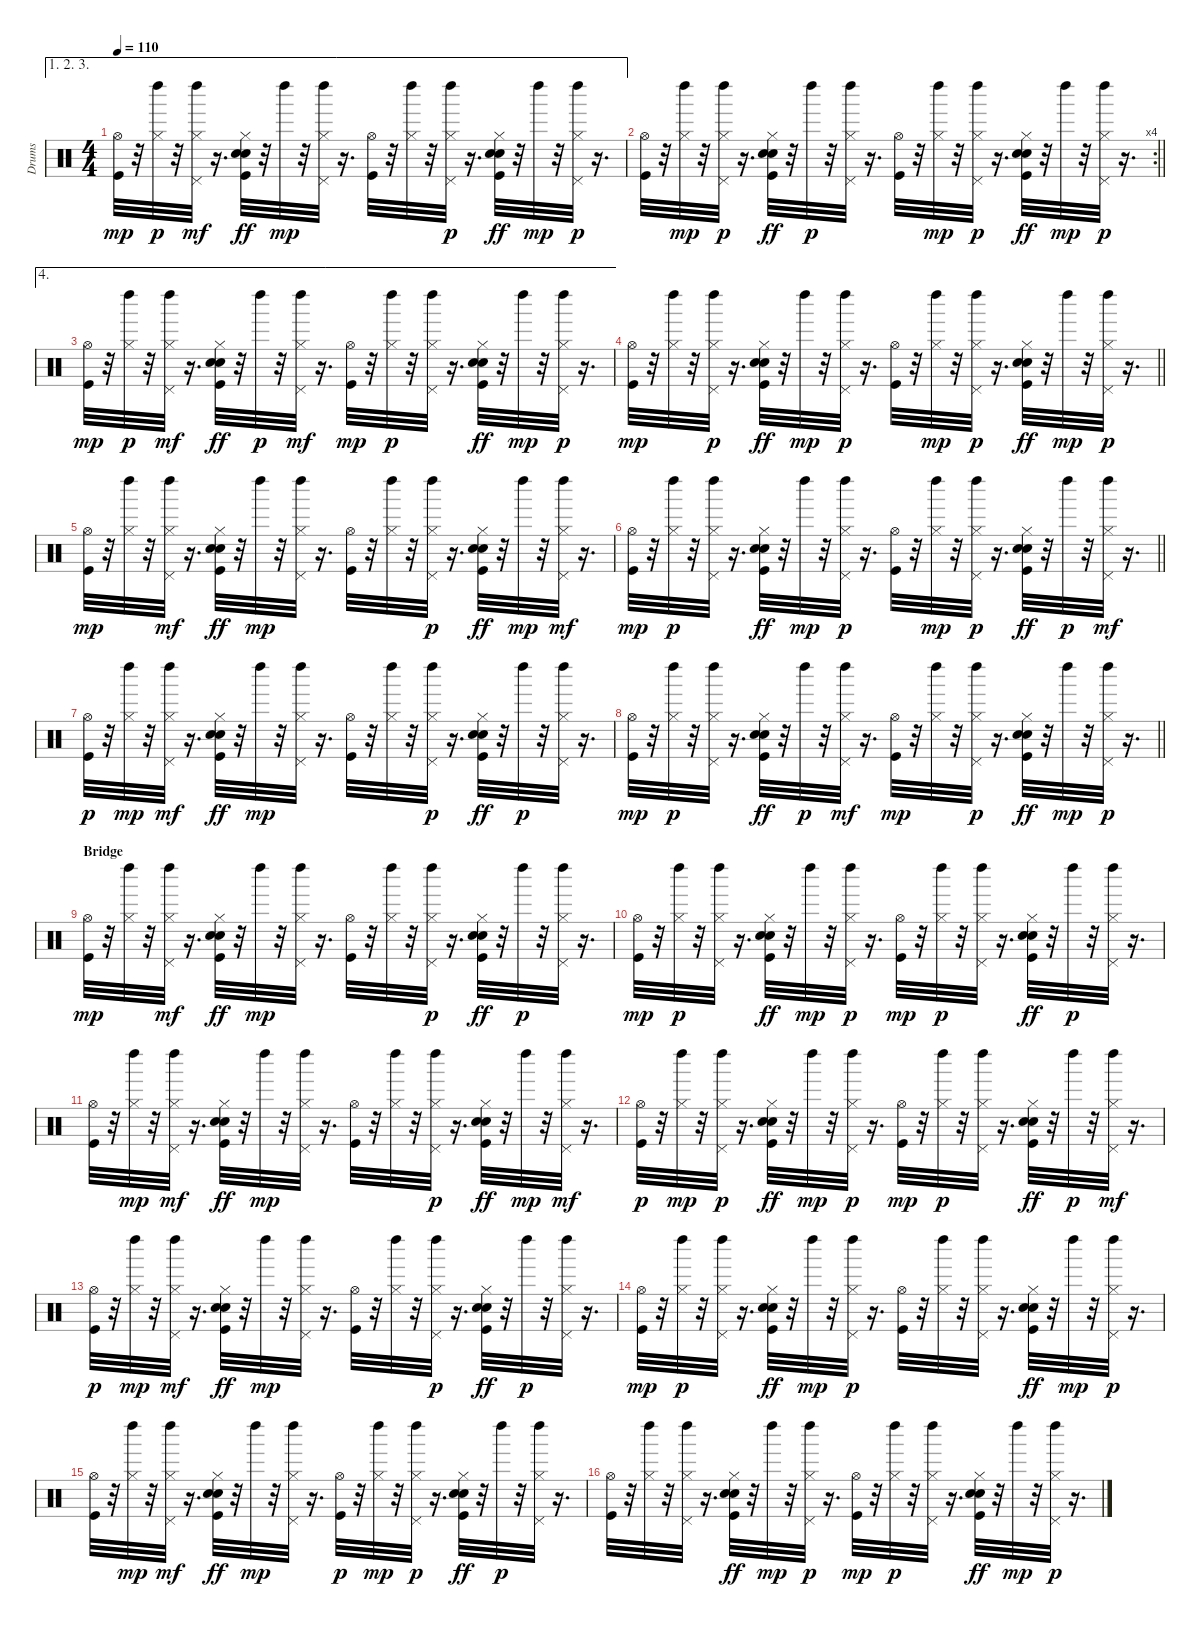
\track ("Drums" "Drums") {instrument percussion}
\staff {score}
\articulation defaults
\ae (1 2 3)
\ts (4 4)
\tempo 110
\clef neutral
\ks c
("Kick (hit)" "Hi-Hat (open)").32{dy mp} r.32 ("Hi-Hat (closed)" "Left Maraca (hit)").32{dy p} r.32 ("Hi-Hat (closed)" "Pedal Hi-Hat (hit)" "Left Maraca (hit)").32{dy mf} r.16{d} ("Kick (hit)" "Snare (hit) 2" "Hand Clap (hit)" "Hi-Hat (closed)").32{dy ff} r.32 "Left Maraca (hit)".32{dy mp} r.32 ("Hi-Hat (closed)" "Pedal Hi-Hat (hit)" "Left Maraca (hit)").32 r.16{d} ("Kick (hit)" "Hi-Hat (open)").32 r.32 ("Hi-Hat (closed)" "Left Maraca (hit)").32 r.32 ("Hi-Hat (closed)" "Pedal Hi-Hat (hit)" "Left Maraca (hit)").32{dy p} r.16{d} ("Kick (hit)" "Snare (hit) 2" "Hand Clap (hit)" "Hi-Hat (closed)").32{dy ff} r.32 "Left Maraca (hit)".32{dy mp} r.32 ("Hi-Hat (closed)" "Pedal Hi-Hat (hit)" "Left Maraca (hit)").32{dy p} r.16{d} |
\rc 4
\barLineRight lightlight
("Kick (hit)" "Hi-Hat (open)").32 r.32 ("Hi-Hat (closed)" "Left Maraca (hit)").32{dy mp} r.32 ("Hi-Hat (closed)" "Pedal Hi-Hat (hit)" "Left Maraca (hit)").32{dy p} r.16{d} ("Kick (hit)" "Snare (hit) 2" "Hand Clap (hit)" "Hi-Hat (closed)").32{dy ff} r.32 "Left Maraca (hit)".32{dy p} r.32 ("Hi-Hat (closed)" "Pedal Hi-Hat (hit)" "Left Maraca (hit)").32 r.16{d} ("Kick (hit)" "Hi-Hat (open)").32 r.32 ("Hi-Hat (closed)" "Left Maraca (hit)").32{dy mp} r.32 ("Hi-Hat (closed)" "Pedal Hi-Hat (hit)" "Left Maraca (hit)").32{dy p} r.16{d} ("Kick (hit)" "Snare (hit) 2" "Hand Clap (hit)" "Hi-Hat (closed)").32{dy ff} r.32 "Left Maraca (hit)".32{dy mp} r.32 ("Hi-Hat (closed)" "Pedal Hi-Hat (hit)" "Left Maraca (hit)").32{dy p} r.16{d} |
\ae 4
("Kick (hit)" "Hi-Hat (open)").32{dy mp} r.32 ("Hi-Hat (closed)" "Left Maraca (hit)").32{dy p} r.32 ("Hi-Hat (closed)" "Pedal Hi-Hat (hit)" "Left Maraca (hit)").32{dy mf} r.16{d} ("Kick (hit)" "Snare (hit) 2" "Hand Clap (hit)" "Hi-Hat (closed)").32{dy ff} r.32 "Left Maraca (hit)".32{dy p} r.32 ("Hi-Hat (closed)" "Pedal Hi-Hat (hit)" "Left Maraca (hit)").32{dy mf} r.16{d} ("Kick (hit)" "Hi-Hat (open)").32{dy mp} r.32 ("Hi-Hat (closed)" "Left Maraca (hit)").32{dy p} r.32 ("Hi-Hat (closed)" "Pedal Hi-Hat (hit)" "Left Maraca (hit)").32 r.16{d} ("Kick (hit)" "Snare (hit) 2" "Hand Clap (hit)" "Hi-Hat (closed)").32{dy ff} r.32 "Left Maraca (hit)".32{dy mp} r.32 ("Hi-Hat (closed)" "Pedal Hi-Hat (hit)" "Left Maraca (hit)").32{dy p} r.16{d} |
\barLineRight lightlight
("Kick (hit)" "Hi-Hat (open)").32{dy mp} r.32 ("Hi-Hat (closed)" "Left Maraca (hit)").32 r.32 ("Hi-Hat (closed)" "Pedal Hi-Hat (hit)" "Left Maraca (hit)").32{dy p} r.16{d} ("Kick (hit)" "Snare (hit) 2" "Hand Clap (hit)" "Hi-Hat (closed)").32{dy ff} r.32 "Left Maraca (hit)".32{dy mp} r.32 ("Hi-Hat (closed)" "Pedal Hi-Hat (hit)" "Left Maraca (hit)").32{dy p} r.16{d} ("Kick (hit)" "Hi-Hat (open)").32 r.32 ("Hi-Hat (closed)" "Left Maraca (hit)").32{dy mp} r.32 ("Hi-Hat (closed)" "Pedal Hi-Hat (hit)" "Left Maraca (hit)").32{dy p} r.16{d} ("Kick (hit)" "Snare (hit) 2" "Hand Clap (hit)" "Hi-Hat (closed)").32{dy ff} r.32 "Left Maraca (hit)".32{dy mp} r.32 ("Hi-Hat (closed)" "Pedal Hi-Hat (hit)" "Left Maraca (hit)").32{dy p} r.16{d} |
("Kick (hit)" "Hi-Hat (open)").32{dy mp} r.32 ("Hi-Hat (closed)" "Left Maraca (hit)").32 r.32 ("Hi-Hat (closed)" "Pedal Hi-Hat (hit)" "Left Maraca (hit)").32{dy mf} r.16{d} ("Kick (hit)" "Snare (hit) 2" "Hand Clap (hit)" "Hi-Hat (closed)").32{dy ff} r.32 "Left Maraca (hit)".32{dy mp} r.32 ("Hi-Hat (closed)" "Pedal Hi-Hat (hit)" "Left Maraca (hit)").32 r.16{d} ("Kick (hit)" "Hi-Hat (open)").32 r.32 ("Hi-Hat (closed)" "Left Maraca (hit)").32 r.32 ("Hi-Hat (closed)" "Pedal Hi-Hat (hit)" "Left Maraca (hit)").32{dy p} r.16{d} ("Kick (hit)" "Snare (hit) 2" "Hand Clap (hit)" "Hi-Hat (closed)").32{dy ff} r.32 "Left Maraca (hit)".32{dy mp} r.32 ("Hi-Hat (closed)" "Pedal Hi-Hat (hit)" "Left Maraca (hit)").32{dy mf} r.16{d} |
\barLineRight lightlight
("Kick (hit)" "Hi-Hat (open)").32{dy mp} r.32 ("Hi-Hat (closed)" "Left Maraca (hit)").32{dy p} r.32 ("Hi-Hat (closed)" "Pedal Hi-Hat (hit)" "Left Maraca (hit)").32 r.16{d} ("Kick (hit)" "Snare (hit) 2" "Hand Clap (hit)" "Hi-Hat (closed)").32{dy ff} r.32 "Left Maraca (hit)".32{dy mp} r.32 ("Hi-Hat (closed)" "Pedal Hi-Hat (hit)" "Left Maraca (hit)").32{dy p} r.16{d} ("Kick (hit)" "Hi-Hat (open)").32 r.32 ("Hi-Hat (closed)" "Left Maraca (hit)").32{dy mp} r.32 ("Hi-Hat (closed)" "Pedal Hi-Hat (hit)" "Left Maraca (hit)").32{dy p} r.16{d} ("Kick (hit)" "Snare (hit) 2" "Hand Clap (hit)" "Hi-Hat (closed)").32{dy ff} r.32 "Left Maraca (hit)".32{dy p} r.32 ("Hi-Hat (closed)" "Pedal Hi-Hat (hit)" "Left Maraca (hit)").32{dy mf} r.16{d} |
("Kick (hit)" "Hi-Hat (open)").32{dy p} r.32 ("Hi-Hat (closed)" "Left Maraca (hit)").32{dy mp} r.32 ("Hi-Hat (closed)" "Pedal Hi-Hat (hit)" "Left Maraca (hit)").32{dy mf} r.16{d} ("Kick (hit)" "Snare (hit) 2" "Hand Clap (hit)" "Hi-Hat (closed)").32{dy ff} r.32 "Left Maraca (hit)".32{dy mp} r.32 ("Hi-Hat (closed)" "Pedal Hi-Hat (hit)" "Left Maraca (hit)").32 r.16{d} ("Kick (hit)" "Hi-Hat (open)").32 r.32 ("Hi-Hat (closed)" "Left Maraca (hit)").32 r.32 ("Hi-Hat (closed)" "Pedal Hi-Hat (hit)" "Left Maraca (hit)").32{dy p} r.16{d} ("Kick (hit)" "Snare (hit) 2" "Hand Clap (hit)" "Hi-Hat (closed)").32{dy ff} r.32 "Left Maraca (hit)".32{dy p} r.32 ("Hi-Hat (closed)" "Pedal Hi-Hat (hit)" "Left Maraca (hit)").32 r.16{d} |
\barLineRight lightlight
("Kick (hit)" "Hi-Hat (open)").32{dy mp} r.32 ("Hi-Hat (closed)" "Left Maraca (hit)").32{dy p} r.32 ("Hi-Hat (closed)" "Pedal Hi-Hat (hit)" "Left Maraca (hit)").32 r.16{d} ("Kick (hit)" "Snare (hit) 2" "Hand Clap (hit)" "Hi-Hat (closed)").32{dy ff} r.32 "Left Maraca (hit)".32{dy p} r.32 ("Hi-Hat (closed)" "Pedal Hi-Hat (hit)" "Left Maraca (hit)").32{dy mf} r.16{d} ("Kick (hit)" "Hi-Hat (open)").32{dy mp} r.32 ("Hi-Hat (closed)" "Left Maraca (hit)").32 r.32 ("Hi-Hat (closed)" "Pedal Hi-Hat (hit)" "Left Maraca (hit)").32{dy p} r.16{d} ("Kick (hit)" "Snare (hit) 2" "Hand Clap (hit)" "Hi-Hat (closed)").32{dy ff} r.32 "Left Maraca (hit)".32{dy mp} r.32 ("Hi-Hat (closed)" "Pedal Hi-Hat (hit)" "Left Maraca (hit)").32{dy p} r.16{d} |
\section ("" "Bridge")
("Kick (hit)" "Hi-Hat (open)").32{dy mp} r.32 ("Hi-Hat (closed)" "Left Maraca (hit)").32 r.32 ("Hi-Hat (closed)" "Pedal Hi-Hat (hit)" "Left Maraca (hit)").32{dy mf} r.16{d} ("Kick (hit)" "Snare (hit) 2" "Hand Clap (hit)" "Hi-Hat (closed)").32{dy ff} r.32 "Left Maraca (hit)".32{dy mp} r.32 ("Hi-Hat (closed)" "Pedal Hi-Hat (hit)" "Left Maraca (hit)").32 r.16{d} ("Kick (hit)" "Hi-Hat (open)").32 r.32 ("Hi-Hat (closed)" "Left Maraca (hit)").32 r.32 ("Hi-Hat (closed)" "Pedal Hi-Hat (hit)" "Left Maraca (hit)").32{dy p} r.16{d} ("Kick (hit)" "Snare (hit) 2" "Hand Clap (hit)" "Hi-Hat (closed)").32{dy ff} r.32 "Left Maraca (hit)".32{dy p} r.32 ("Hi-Hat (closed)" "Pedal Hi-Hat (hit)" "Left Maraca (hit)").32 r.16{d} |
("Kick (hit)" "Hi-Hat (open)").32{dy mp} r.32 ("Hi-Hat (closed)" "Left Maraca (hit)").32{dy p} r.32 ("Hi-Hat (closed)" "Pedal Hi-Hat (hit)" "Left Maraca (hit)").32 r.16{d} ("Kick (hit)" "Snare (hit) 2" "Hand Clap (hit)" "Hi-Hat (closed)").32{dy ff} r.32 "Left Maraca (hit)".32{dy mp} r.32 ("Hi-Hat (closed)" "Pedal Hi-Hat (hit)" "Left Maraca (hit)").32{dy p} r.16{d} ("Kick (hit)" "Hi-Hat (open)").32{dy mp} r.32 ("Hi-Hat (closed)" "Left Maraca (hit)").32{dy p} r.32 ("Hi-Hat (closed)" "Pedal Hi-Hat (hit)" "Left Maraca (hit)").32 r.16{d} ("Kick (hit)" "Snare (hit) 2" "Hand Clap (hit)" "Hi-Hat (closed)").32{dy ff} r.32 "Left Maraca (hit)".32{dy p} r.32 ("Hi-Hat (closed)" "Pedal Hi-Hat (hit)" "Left Maraca (hit)").32 r.16{d} |
("Kick (hit)" "Hi-Hat (open)").32 r.32 ("Hi-Hat (closed)" "Left Maraca (hit)").32{dy mp} r.32 ("Hi-Hat (closed)" "Pedal Hi-Hat (hit)" "Left Maraca (hit)").32{dy mf} r.16{d} ("Kick (hit)" "Snare (hit) 2" "Hand Clap (hit)" "Hi-Hat (closed)").32{dy ff} r.32 "Left Maraca (hit)".32{dy mp} r.32 ("Hi-Hat (closed)" "Pedal Hi-Hat (hit)" "Left Maraca (hit)").32 r.16{d} ("Kick (hit)" "Hi-Hat (open)").32 r.32 ("Hi-Hat (closed)" "Left Maraca (hit)").32 r.32 ("Hi-Hat (closed)" "Pedal Hi-Hat (hit)" "Left Maraca (hit)").32{dy p} r.16{d} ("Kick (hit)" "Snare (hit) 2" "Hand Clap (hit)" "Hi-Hat (closed)").32{dy ff} r.32 "Left Maraca (hit)".32{dy mp} r.32 ("Hi-Hat (closed)" "Pedal Hi-Hat (hit)" "Left Maraca (hit)").32{dy mf} r.16{d} |
("Kick (hit)" "Hi-Hat (open)").32{dy p} r.32 ("Hi-Hat (closed)" "Left Maraca (hit)").32{dy mp} r.32 ("Hi-Hat (closed)" "Pedal Hi-Hat (hit)" "Left Maraca (hit)").32{dy p} r.16{d} ("Kick (hit)" "Snare (hit) 2" "Hand Clap (hit)" "Hi-Hat (closed)").32{dy ff} r.32 "Left Maraca (hit)".32{dy mp} r.32 ("Hi-Hat (closed)" "Pedal Hi-Hat (hit)" "Left Maraca (hit)").32{dy p} r.16{d} ("Kick (hit)" "Hi-Hat (open)").32{dy mp} r.32 ("Hi-Hat (closed)" "Left Maraca (hit)").32{dy p} r.32 ("Hi-Hat (closed)" "Pedal Hi-Hat (hit)" "Left Maraca (hit)").32 r.16{d} ("Kick (hit)" "Snare (hit) 2" "Hand Clap (hit)" "Hi-Hat (closed)").32{dy ff} r.32 "Left Maraca (hit)".32{dy p} r.32 ("Hi-Hat (closed)" "Pedal Hi-Hat (hit)" "Left Maraca (hit)").32{dy mf} r.16{d} |
("Kick (hit)" "Hi-Hat (open)").32{dy p} r.32 ("Hi-Hat (closed)" "Left Maraca (hit)").32{dy mp} r.32 ("Hi-Hat (closed)" "Pedal Hi-Hat (hit)" "Left Maraca (hit)").32{dy mf} r.16{d} ("Kick (hit)" "Snare (hit) 2" "Hand Clap (hit)" "Hi-Hat (closed)").32{dy ff} r.32 "Left Maraca (hit)".32{dy mp} r.32 ("Hi-Hat (closed)" "Pedal Hi-Hat (hit)" "Left Maraca (hit)").32 r.16{d} ("Kick (hit)" "Hi-Hat (open)").32 r.32 ("Hi-Hat (closed)" "Left Maraca (hit)").32 r.32 ("Hi-Hat (closed)" "Pedal Hi-Hat (hit)" "Left Maraca (hit)").32{dy p} r.16{d} ("Kick (hit)" "Snare (hit) 2" "Hand Clap (hit)" "Hi-Hat (closed)").32{dy ff} r.32 "Left Maraca (hit)".32{dy p} r.32 ("Hi-Hat (closed)" "Pedal Hi-Hat (hit)" "Left Maraca (hit)").32 r.16{d} |
("Kick (hit)" "Hi-Hat (open)").32{dy mp} r.32 ("Hi-Hat (closed)" "Left Maraca (hit)").32{dy p} r.32 ("Hi-Hat (closed)" "Pedal Hi-Hat (hit)" "Left Maraca (hit)").32 r.16{d} ("Kick (hit)" "Snare (hit) 2" "Hand Clap (hit)" "Hi-Hat (closed)").32{dy ff} r.32 "Left Maraca (hit)".32{dy mp} r.32 ("Hi-Hat (closed)" "Pedal Hi-Hat (hit)" "Left Maraca (hit)").32{dy p} r.16{d} ("Kick (hit)" "Hi-Hat (open)").32 r.32 ("Hi-Hat (closed)" "Left Maraca (hit)").32 r.32 ("Hi-Hat (closed)" "Pedal Hi-Hat (hit)" "Left Maraca (hit)").32 r.16{d} ("Kick (hit)" "Snare (hit) 2" "Hand Clap (hit)" "Hi-Hat (closed)").32{dy ff} r.32 "Left Maraca (hit)".32{dy mp} r.32 ("Hi-Hat (closed)" "Pedal Hi-Hat (hit)" "Left Maraca (hit)").32{dy p} r.16{d} |
("Kick (hit)" "Hi-Hat (open)").32 r.32 ("Hi-Hat (closed)" "Left Maraca (hit)").32{dy mp} r.32 ("Hi-Hat (closed)" "Pedal Hi-Hat (hit)" "Left Maraca (hit)").32{dy mf} r.16{d} ("Kick (hit)" "Snare (hit) 2" "Hand Clap (hit)" "Hi-Hat (closed)").32{dy ff} r.32 "Left Maraca (hit)".32{dy mp} r.32 ("Hi-Hat (closed)" "Pedal Hi-Hat (hit)" "Left Maraca (hit)").32 r.16{d} ("Kick (hit)" "Hi-Hat (open)").32{dy p} r.32 ("Hi-Hat (closed)" "Left Maraca (hit)").32{dy mp} r.32 ("Hi-Hat (closed)" "Pedal Hi-Hat (hit)" "Left Maraca (hit)").32{dy p} r.16{d} ("Kick (hit)" "Snare (hit) 2" "Hand Clap (hit)" "Hi-Hat (closed)").32{dy ff} r.32 "Left Maraca (hit)".32{dy p} r.32 ("Hi-Hat (closed)" "Pedal Hi-Hat (hit)" "Left Maraca (hit)").32 r.16{d} |
("Kick (hit)" "Hi-Hat (open)").32 r.32 ("Hi-Hat (closed)" "Left Maraca (hit)").32 r.32 ("Hi-Hat (closed)" "Pedal Hi-Hat (hit)" "Left Maraca (hit)").32 r.16{d} ("Kick (hit)" "Snare (hit) 2" "Hand Clap (hit)" "Hi-Hat (closed)").32{dy ff} r.32 "Left Maraca (hit)".32{dy mp} r.32 ("Hi-Hat (closed)" "Pedal Hi-Hat (hit)" "Left Maraca (hit)").32{dy p} r.16{d} ("Kick (hit)" "Hi-Hat (open)").32{dy mp} r.32 ("Hi-Hat (closed)" "Left Maraca (hit)").32{dy p} r.32 ("Hi-Hat (closed)" "Pedal Hi-Hat (hit)" "Left Maraca (hit)").32 r.16{d} ("Kick (hit)" "Snare (hit) 2" "Hand Clap (hit)" "Hi-Hat (closed)").32{dy ff} r.32 "Left Maraca (hit)".32{dy mp} r.32 ("Hi-Hat (closed)" "Pedal Hi-Hat (hit)" "Left Maraca (hit)").32{dy p} r.16{d}
